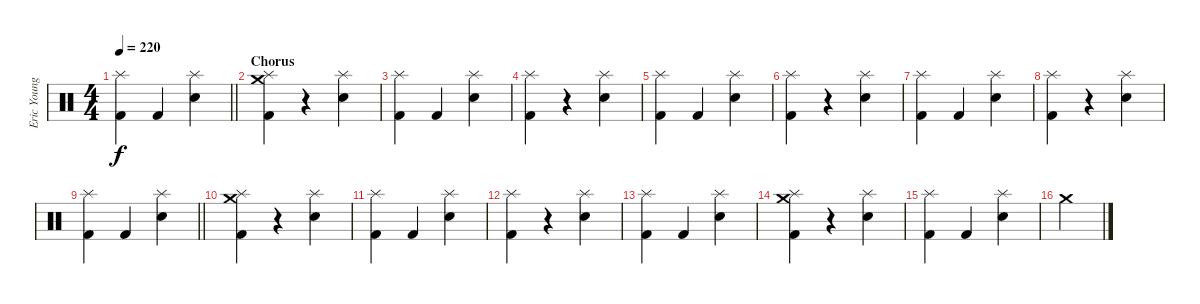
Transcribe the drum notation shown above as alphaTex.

\track ("Eric Young (Drums)" "Eric Young") {instrument percussion}
\staff {score}
\articulation defaults
\ts (4 4)
\tempo 220
\clef neutral
\barLineRight lightlight
\ks c
("Splash (hit)" "Kick (hit) 2").4{dy f} "Kick (hit) 2".4 ("Splash (hit)" "Snare (hit) 2").4 |
\section ("" "Chorus")
("Splash (hit)" "Kick (hit) 2" "Crash medium (hit)").4 r.4 ("Splash (hit)" "Snare (hit) 2").4 |
("Splash (hit)" "Kick (hit) 2").4 "Kick (hit) 2".4 ("Splash (hit)" "Snare (hit) 2").4 |
("Splash (hit)" "Kick (hit) 2").4 r.4 ("Splash (hit)" "Snare (hit) 2").4 |
("Splash (hit)" "Kick (hit) 2").4 "Kick (hit) 2".4 ("Splash (hit)" "Snare (hit) 2").4 |
("Splash (hit)" "Kick (hit) 2").4 r.4 ("Splash (hit)" "Snare (hit) 2").4 |
("Splash (hit)" "Kick (hit) 2").4 "Kick (hit) 2".4 ("Splash (hit)" "Snare (hit) 2").4 |
("Splash (hit)" "Kick (hit) 2").4 r.4 ("Splash (hit)" "Snare (hit) 2").4 |
\barLineRight lightlight
("Splash (hit)" "Kick (hit) 2").4 "Kick (hit) 2".4 ("Splash (hit)" "Snare (hit) 2").4 |
("Splash (hit)" "Kick (hit) 2" "Crash medium (hit)").4 r.4 ("Splash (hit)" "Snare (hit) 2").4 |
("Splash (hit)" "Kick (hit) 2").4 "Kick (hit) 2".4 ("Splash (hit)" "Snare (hit) 2").4 |
("Splash (hit)" "Kick (hit) 2").4 r.4 ("Splash (hit)" "Snare (hit) 2").4 |
("Splash (hit)" "Kick (hit) 2").4 "Kick (hit) 2".4 ("Splash (hit)" "Snare (hit) 2").4 |
("Splash (hit)" "Kick (hit) 2" "Crash medium (hit)").4 r.4 ("Splash (hit)" "Snare (hit) 2").4 |
("Splash (hit)" "Kick (hit) 2").4 "Kick (hit) 2".4 ("Splash (hit)" "Snare (hit) 2").4 |
"Crash medium (hit)".4
